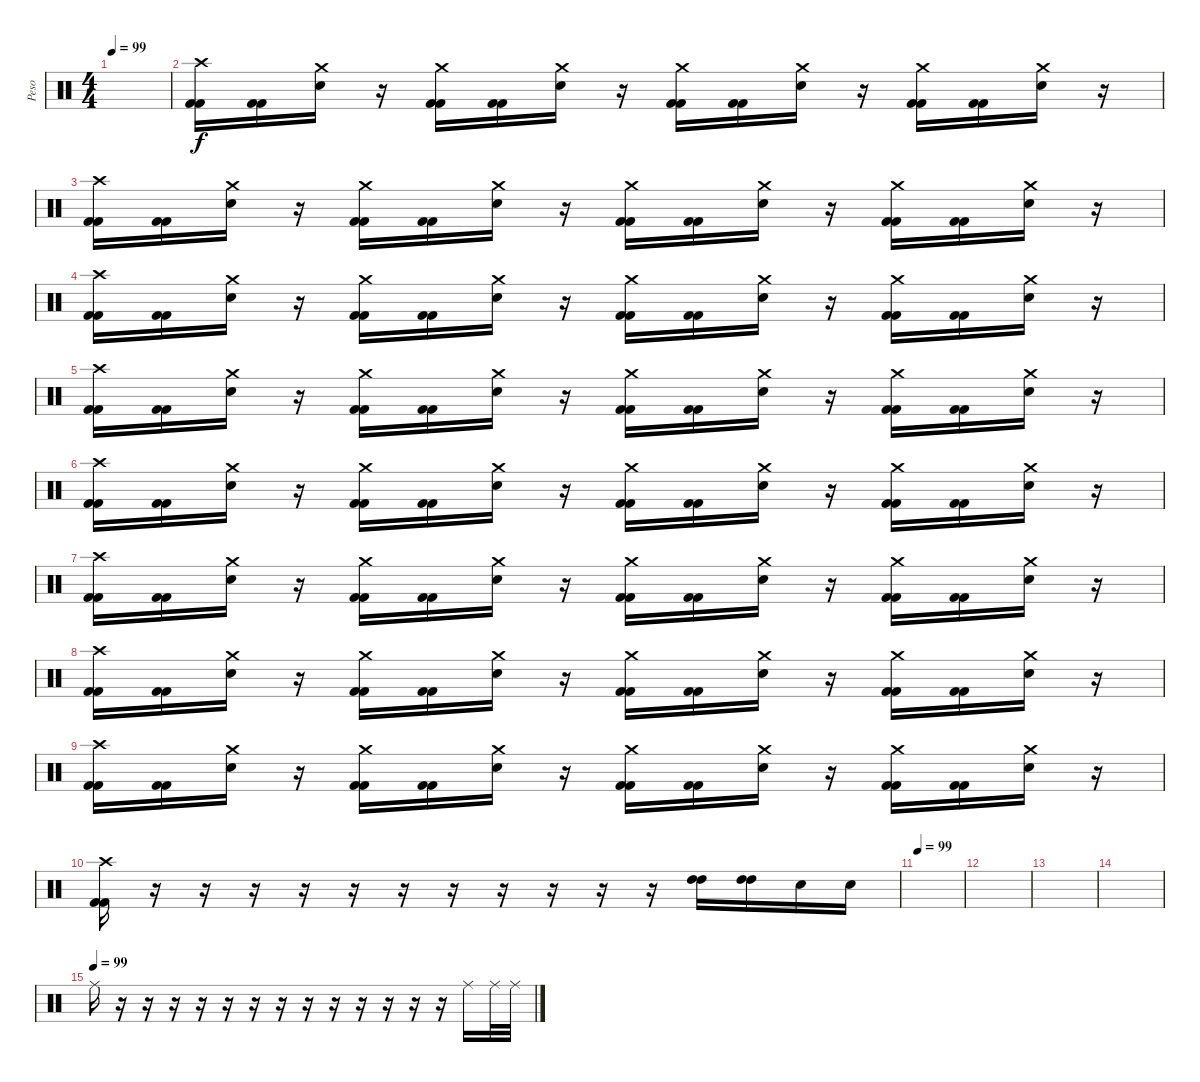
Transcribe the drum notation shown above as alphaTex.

\track ("Peso" "Peso") {instrument percussion}
\staff {score}
\articulation defaults
\ts (4 4)
\tempo 99
\clef neutral
\ks c
|
("Crash high (hit)" "Kick (hit) 2" "Kick (hit) 2").16 ("Kick (hit) 2" "Kick (hit) 2").16 ("Crash medium (hit)" "Electric Snare (hit)").16 r.16 ("Crash medium (hit)" "Kick (hit) 2" "Kick (hit) 2").16 ("Kick (hit) 2" "Kick (hit) 2").16 ("Crash medium (hit)" "Electric Snare (hit)").16 r.16 ("Crash medium (hit)" "Kick (hit) 2" "Kick (hit) 2").16 ("Kick (hit) 2" "Kick (hit) 2").16 ("Crash medium (hit)" "Electric Snare (hit)").16 r.16 ("Crash medium (hit)" "Kick (hit) 2" "Kick (hit) 2").16 ("Kick (hit) 2" "Kick (hit) 2").16 ("Crash medium (hit)" "Electric Snare (hit)").16 r.16 |
("Crash high (hit)" "Kick (hit) 2" "Kick (hit) 2").16 ("Kick (hit) 2" "Kick (hit) 2").16 ("Crash medium (hit)" "Electric Snare (hit)").16 r.16 ("Crash medium (hit)" "Kick (hit) 2" "Kick (hit) 2").16 ("Kick (hit) 2" "Kick (hit) 2").16 ("Crash medium (hit)" "Electric Snare (hit)").16 r.16 ("Crash medium (hit)" "Kick (hit) 2" "Kick (hit) 2").16 ("Kick (hit) 2" "Kick (hit) 2").16 ("Crash medium (hit)" "Electric Snare (hit)").16 r.16 ("Crash medium (hit)" "Kick (hit) 2" "Kick (hit) 2").16 ("Kick (hit) 2" "Kick (hit) 2").16 ("Crash medium (hit)" "Electric Snare (hit)").16 r.16 |
("Crash high (hit)" "Kick (hit) 2" "Kick (hit) 2").16 ("Kick (hit) 2" "Kick (hit) 2").16 ("Crash medium (hit)" "Electric Snare (hit)").16 r.16 ("Crash medium (hit)" "Kick (hit) 2" "Kick (hit) 2").16 ("Kick (hit) 2" "Kick (hit) 2").16 ("Crash medium (hit)" "Electric Snare (hit)").16 r.16 ("Crash medium (hit)" "Kick (hit) 2" "Kick (hit) 2").16 ("Kick (hit) 2" "Kick (hit) 2").16 ("Crash medium (hit)" "Electric Snare (hit)").16 r.16 ("Crash medium (hit)" "Kick (hit) 2" "Kick (hit) 2").16 ("Kick (hit) 2" "Kick (hit) 2").16 ("Crash medium (hit)" "Electric Snare (hit)").16 r.16 |
("Crash high (hit)" "Kick (hit) 2" "Kick (hit) 2").16 ("Kick (hit) 2" "Kick (hit) 2").16 ("Crash medium (hit)" "Electric Snare (hit)").16 r.16 ("Crash medium (hit)" "Kick (hit) 2" "Kick (hit) 2").16 ("Kick (hit) 2" "Kick (hit) 2").16 ("Crash medium (hit)" "Electric Snare (hit)").16 r.16 ("Crash medium (hit)" "Kick (hit) 2" "Kick (hit) 2").16 ("Kick (hit) 2" "Kick (hit) 2").16 ("Crash medium (hit)" "Electric Snare (hit)").16 r.16 ("Crash medium (hit)" "Kick (hit) 2" "Kick (hit) 2").16 ("Kick (hit) 2" "Kick (hit) 2").16 ("Crash medium (hit)" "Electric Snare (hit)").16 r.16 |
("Crash high (hit)" "Kick (hit) 2" "Kick (hit) 2").16 ("Kick (hit) 2" "Kick (hit) 2").16 ("Crash medium (hit)" "Electric Snare (hit)").16 r.16 ("Crash medium (hit)" "Kick (hit) 2" "Kick (hit) 2").16 ("Kick (hit) 2" "Kick (hit) 2").16 ("Crash medium (hit)" "Electric Snare (hit)").16 r.16 ("Crash medium (hit)" "Kick (hit) 2" "Kick (hit) 2").16 ("Kick (hit) 2" "Kick (hit) 2").16 ("Crash medium (hit)" "Electric Snare (hit)").16 r.16 ("Crash medium (hit)" "Kick (hit) 2" "Kick (hit) 2").16 ("Kick (hit) 2" "Kick (hit) 2").16 ("Crash medium (hit)" "Electric Snare (hit)").16 r.16 |
("Crash high (hit)" "Kick (hit) 2" "Kick (hit) 2").16 ("Kick (hit) 2" "Kick (hit) 2").16 ("Crash medium (hit)" "Electric Snare (hit)").16 r.16 ("Crash medium (hit)" "Kick (hit) 2" "Kick (hit) 2").16 ("Kick (hit) 2" "Kick (hit) 2").16 ("Crash medium (hit)" "Electric Snare (hit)").16 r.16 ("Crash medium (hit)" "Kick (hit) 2" "Kick (hit) 2").16 ("Kick (hit) 2" "Kick (hit) 2").16 ("Crash medium (hit)" "Electric Snare (hit)").16 r.16 ("Crash medium (hit)" "Kick (hit) 2" "Kick (hit) 2").16 ("Kick (hit) 2" "Kick (hit) 2").16 ("Crash medium (hit)" "Electric Snare (hit)").16 r.16 |
("Crash high (hit)" "Kick (hit) 2" "Kick (hit) 2").16 ("Kick (hit) 2" "Kick (hit) 2").16 ("Crash medium (hit)" "Electric Snare (hit)").16 r.16 ("Crash medium (hit)" "Kick (hit) 2" "Kick (hit) 2").16 ("Kick (hit) 2" "Kick (hit) 2").16 ("Crash medium (hit)" "Electric Snare (hit)").16 r.16 ("Crash medium (hit)" "Kick (hit) 2" "Kick (hit) 2").16 ("Kick (hit) 2" "Kick (hit) 2").16 ("Crash medium (hit)" "Electric Snare (hit)").16 r.16 ("Crash medium (hit)" "Kick (hit) 2" "Kick (hit) 2").16 ("Kick (hit) 2" "Kick (hit) 2").16 ("Crash medium (hit)" "Electric Snare (hit)").16 r.16 |
("Crash high (hit)" "Kick (hit) 2" "Kick (hit) 2").16 ("Kick (hit) 2" "Kick (hit) 2").16 ("Crash medium (hit)" "Electric Snare (hit)").16 r.16 ("Crash medium (hit)" "Kick (hit) 2" "Kick (hit) 2").16 ("Kick (hit) 2" "Kick (hit) 2").16 ("Crash medium (hit)" "Electric Snare (hit)").16 r.16 ("Crash medium (hit)" "Kick (hit) 2" "Kick (hit) 2").16 ("Kick (hit) 2" "Kick (hit) 2").16 ("Crash medium (hit)" "Electric Snare (hit)").16 r.16 ("Crash medium (hit)" "Kick (hit) 2" "Kick (hit) 2").16 ("Kick (hit) 2" "Kick (hit) 2").16 ("Crash medium (hit)" "Electric Snare (hit)").16 r.16 |
("Crash high (hit)" "Kick (hit) 2" "Kick (hit) 2").16 r.16 r.16 r.16 r.16 r.16 r.16 r.16 r.16 r.16 r.16 r.16 ("High Tom (hit)" "High Tom (hit)").16{volume 16} ("High Tom (hit)" "High Tom (hit)").16 "Electric Snare (hit)".16{volume 15} "Electric Snare (hit)".16 |
\tempo 99
|
|
|
|
\tempo (99)
"Ride (middle)".16 r.16 r.16 r.16 r.16 r.16 r.16 r.16 r.16 r.16 r.16 r.16 r.16 r.16 "Ride (middle)".16 "Ride (middle)".32 "Ride (middle)".32
